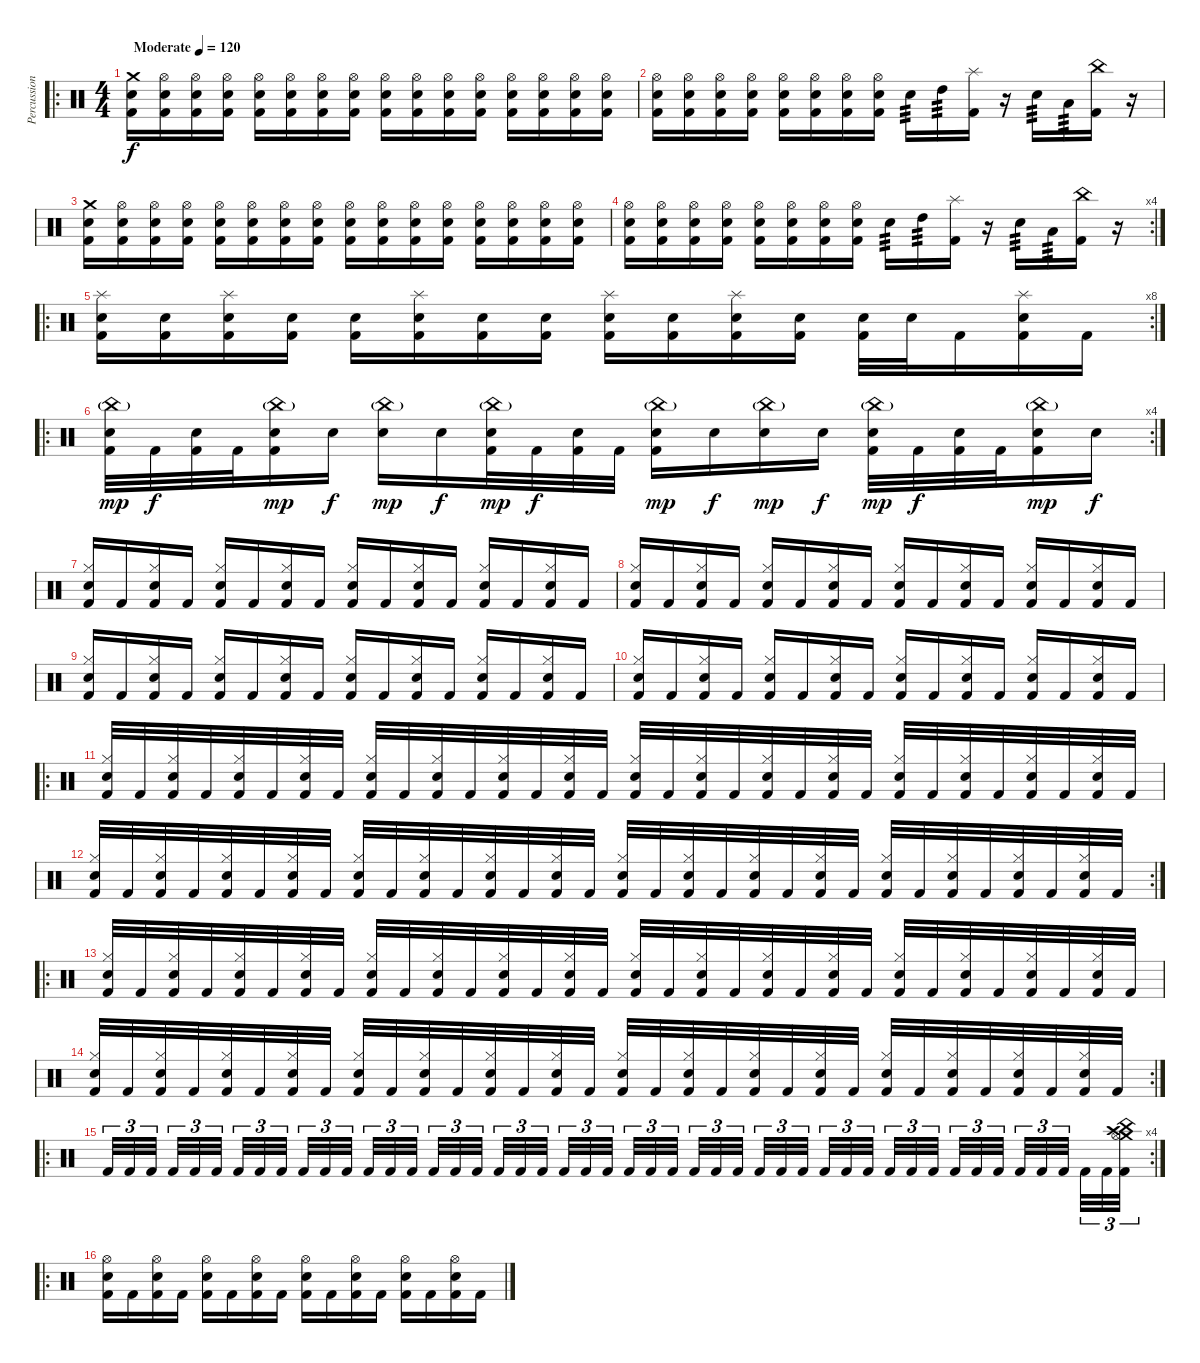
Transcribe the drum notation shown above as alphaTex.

\track ("Percussions" "Percussion") {instrument percussion}
\staff {score}
\articulation defaults
\ro
\ts (4 4)
\tempo (120 "Moderate")
\clef neutral
\ks c
("Crash medium (hit)" "Electric Snare (hit)" "Kick (hit) 2").16{dy f} ("Hi-Hat (open)" "Electric Snare (hit)" "Kick (hit) 2").16 ("Hi-Hat (open)" "Electric Snare (hit)" "Kick (hit) 2").16 ("Hi-Hat (open)" "Electric Snare (hit)" "Kick (hit) 2").16 ("Hi-Hat (open)" "Electric Snare (hit)" "Kick (hit) 2").16 ("Hi-Hat (open)" "Electric Snare (hit)" "Kick (hit) 2").16 ("Hi-Hat (open)" "Electric Snare (hit)" "Kick (hit) 2").16 ("Hi-Hat (open)" "Electric Snare (hit)" "Kick (hit) 2").16 ("Hi-Hat (open)" "Electric Snare (hit)" "Kick (hit) 2").16 ("Hi-Hat (open)" "Electric Snare (hit)" "Kick (hit) 2").16 ("Hi-Hat (open)" "Electric Snare (hit)" "Kick (hit) 2").16 ("Hi-Hat (open)" "Electric Snare (hit)" "Kick (hit) 2").16 ("Hi-Hat (open)" "Electric Snare (hit)" "Kick (hit) 2").16 ("Hi-Hat (open)" "Electric Snare (hit)" "Kick (hit) 2").16 ("Hi-Hat (open)" "Electric Snare (hit)" "Kick (hit) 2").16 ("Hi-Hat (open)" "Electric Snare (hit)" "Kick (hit) 2").16 |
("Hi-Hat (open)" "Electric Snare (hit)" "Kick (hit) 2").16 ("Hi-Hat (open)" "Electric Snare (hit)" "Kick (hit) 2").16 ("Hi-Hat (open)" "Electric Snare (hit)" "Kick (hit) 2").16 ("Hi-Hat (open)" "Electric Snare (hit)" "Kick (hit) 2").16 ("Hi-Hat (open)" "Electric Snare (hit)" "Kick (hit) 2").16 ("Hi-Hat (open)" "Electric Snare (hit)" "Kick (hit) 2").16 ("Hi-Hat (open)" "Electric Snare (hit)" "Kick (hit) 2").16 ("Hi-Hat (open)" "Electric Snare (hit)" "Kick (hit) 2").16 "Electric Snare (hit)".16{tp 3} "High Tom (hit)".16{tp 3} ("Splash (hit)" "Kick (hit) 2").16 r.16 "Electric Snare (hit)".16{tp 3} "Low Tom (hit)".16{tp 3} ("China (hit)" "Kick (hit) 2").16 r.16 |
("Crash medium (hit)" "Electric Snare (hit)" "Kick (hit) 2").16 ("Hi-Hat (open)" "Electric Snare (hit)" "Kick (hit) 2").16 ("Hi-Hat (open)" "Electric Snare (hit)" "Kick (hit) 2").16 ("Hi-Hat (open)" "Electric Snare (hit)" "Kick (hit) 2").16 ("Hi-Hat (open)" "Electric Snare (hit)" "Kick (hit) 2").16 ("Hi-Hat (open)" "Electric Snare (hit)" "Kick (hit) 2").16 ("Hi-Hat (open)" "Electric Snare (hit)" "Kick (hit) 2").16 ("Hi-Hat (open)" "Electric Snare (hit)" "Kick (hit) 2").16 ("Hi-Hat (open)" "Electric Snare (hit)" "Kick (hit) 2").16 ("Hi-Hat (open)" "Electric Snare (hit)" "Kick (hit) 2").16 ("Hi-Hat (open)" "Electric Snare (hit)" "Kick (hit) 2").16 ("Hi-Hat (open)" "Electric Snare (hit)" "Kick (hit) 2").16 ("Hi-Hat (open)" "Electric Snare (hit)" "Kick (hit) 2").16 ("Hi-Hat (open)" "Electric Snare (hit)" "Kick (hit) 2").16 ("Hi-Hat (open)" "Electric Snare (hit)" "Kick (hit) 2").16 ("Hi-Hat (open)" "Electric Snare (hit)" "Kick (hit) 2").16 |
\rc 4
("Hi-Hat (open)" "Electric Snare (hit)" "Kick (hit) 2").16 ("Hi-Hat (open)" "Electric Snare (hit)" "Kick (hit) 2").16 ("Hi-Hat (open)" "Electric Snare (hit)" "Kick (hit) 2").16 ("Hi-Hat (open)" "Electric Snare (hit)" "Kick (hit) 2").16 ("Hi-Hat (open)" "Electric Snare (hit)" "Kick (hit) 2").16 ("Hi-Hat (open)" "Electric Snare (hit)" "Kick (hit) 2").16 ("Hi-Hat (open)" "Electric Snare (hit)" "Kick (hit) 2").16 ("Hi-Hat (open)" "Electric Snare (hit)" "Kick (hit) 2").16 "Electric Snare (hit)".16{tp 3} "High Tom (hit)".16{tp 3} ("Splash (hit)" "Kick (hit) 2").16 r.16 "Electric Snare (hit)".16{tp 3} "Low Tom (hit)".16{tp 3} ("China (hit)" "Kick (hit) 2").16 r.16 |
\ro
\rc 8
("Splash (hit)" "Electric Snare (hit)" "Kick (hit) 2").16 ("Electric Snare (hit)" "Kick (hit) 2").16 ("Splash (hit)" "Electric Snare (hit)" "Kick (hit) 2").16 ("Electric Snare (hit)" "Kick (hit) 2").16 ("Electric Snare (hit)" "Kick (hit) 2").16 ("Splash (hit)" "Electric Snare (hit)" "Kick (hit) 2").16 ("Electric Snare (hit)" "Kick (hit) 2").16 ("Electric Snare (hit)" "Kick (hit) 2").16 ("Splash (hit)" "Electric Snare (hit)" "Kick (hit) 2").16 ("Electric Snare (hit)" "Kick (hit) 2").16 ("Splash (hit)" "Electric Snare (hit)" "Kick (hit) 2").16 ("Electric Snare (hit)" "Kick (hit) 2").16 ("Electric Snare (hit)" "Kick (hit) 2").32 "Electric Snare (hit)".32 "Kick (hit) 2".16 ("Splash (hit)" "Electric Snare (hit)" "Kick (hit) 2").16 "Kick (hit) 2".16 |
\ro
\rc 4
("China (hit)"{g} "Electric Snare (hit)" "Kick (hit) 2").32{dy mp} "Kick (hit) 2".32{dy f} ("Electric Snare (hit)" "Kick (hit) 2").32 "Kick (hit) 2".32 ("China (hit)"{g} "Electric Snare (hit)" "Kick (hit) 2").16{dy mp} "Electric Snare (hit)".16{dy f} ("China (hit)"{g} "Electric Snare (hit)").16{dy mp} "Electric Snare (hit)".16{dy f} ("China (hit)"{g} "Electric Snare (hit)" "Kick (hit) 2").32{dy mp} "Kick (hit) 2".32{dy f} ("Electric Snare (hit)" "Kick (hit) 2").32 "Kick (hit) 2".32 ("China (hit)"{g} "Electric Snare (hit)" "Kick (hit) 2").16{dy mp} "Electric Snare (hit)".16{dy f} ("China (hit)"{g} "Electric Snare (hit)").16{dy mp} "Electric Snare (hit)".16{dy f} ("China (hit)"{g} "Electric Snare (hit)" "Kick (hit) 2").32{dy mp} "Kick (hit) 2".32{dy f} ("Electric Snare (hit)" "Kick (hit) 2").32 "Kick (hit) 2".32 ("China (hit)"{g} "Electric Snare (hit)" "Kick (hit) 2").16{dy mp} "Electric Snare (hit)".16{dy f} |
("Hi-Hat (closed)" "Snare (hit) 2" "Kick (hit) 2").16 "Kick (hit) 2".16 ("Hi-Hat (closed)" "Snare (hit) 2" "Kick (hit) 2").16 "Kick (hit) 2".16 ("Hi-Hat (closed)" "Snare (hit) 2" "Kick (hit) 2").16 "Kick (hit) 2".16 ("Hi-Hat (closed)" "Snare (hit) 2" "Kick (hit) 2").16 "Kick (hit) 2".16 ("Hi-Hat (closed)" "Snare (hit) 2" "Kick (hit) 2").16 "Kick (hit) 2".16 ("Hi-Hat (closed)" "Snare (hit) 2" "Kick (hit) 2").16 "Kick (hit) 2".16 ("Hi-Hat (closed)" "Snare (hit) 2" "Kick (hit) 2").16 "Kick (hit) 2".16 ("Hi-Hat (closed)" "Snare (hit) 2" "Kick (hit) 2").16 "Kick (hit) 2".16 |
("Hi-Hat (closed)" "Snare (hit) 2" "Kick (hit) 2").16 "Kick (hit) 2".16 ("Hi-Hat (closed)" "Snare (hit) 2" "Kick (hit) 2").16 "Kick (hit) 2".16 ("Hi-Hat (closed)" "Snare (hit) 2" "Kick (hit) 2").16 "Kick (hit) 2".16 ("Hi-Hat (closed)" "Snare (hit) 2" "Kick (hit) 2").16 "Kick (hit) 2".16 ("Hi-Hat (closed)" "Snare (hit) 2" "Kick (hit) 2").16 "Kick (hit) 2".16 ("Hi-Hat (closed)" "Snare (hit) 2" "Kick (hit) 2").16 "Kick (hit) 2".16 ("Hi-Hat (closed)" "Snare (hit) 2" "Kick (hit) 2").16 "Kick (hit) 2".16 ("Hi-Hat (closed)" "Snare (hit) 2" "Kick (hit) 2").16 "Kick (hit) 2".16 |
("Hi-Hat (closed)" "Snare (hit) 2" "Kick (hit) 2").16 "Kick (hit) 2".16 ("Hi-Hat (closed)" "Snare (hit) 2" "Kick (hit) 2").16 "Kick (hit) 2".16 ("Hi-Hat (closed)" "Snare (hit) 2" "Kick (hit) 2").16 "Kick (hit) 2".16 ("Hi-Hat (closed)" "Snare (hit) 2" "Kick (hit) 2").16 "Kick (hit) 2".16 ("Hi-Hat (closed)" "Snare (hit) 2" "Kick (hit) 2").16 "Kick (hit) 2".16 ("Hi-Hat (closed)" "Snare (hit) 2" "Kick (hit) 2").16 "Kick (hit) 2".16 ("Hi-Hat (closed)" "Snare (hit) 2" "Kick (hit) 2").16 "Kick (hit) 2".16 ("Hi-Hat (closed)" "Snare (hit) 2" "Kick (hit) 2").16 "Kick (hit) 2".16 |
("Hi-Hat (closed)" "Snare (hit) 2" "Kick (hit) 2").16 "Kick (hit) 2".16 ("Hi-Hat (closed)" "Snare (hit) 2" "Kick (hit) 2").16 "Kick (hit) 2".16 ("Hi-Hat (closed)" "Snare (hit) 2" "Kick (hit) 2").16 "Kick (hit) 2".16 ("Hi-Hat (closed)" "Snare (hit) 2" "Kick (hit) 2").16 "Kick (hit) 2".16 ("Hi-Hat (closed)" "Snare (hit) 2" "Kick (hit) 2").16 "Kick (hit) 2".16 ("Hi-Hat (closed)" "Snare (hit) 2" "Kick (hit) 2").16 "Kick (hit) 2".16 ("Hi-Hat (closed)" "Snare (hit) 2" "Kick (hit) 2").16 "Kick (hit) 2".16 ("Hi-Hat (closed)" "Snare (hit) 2" "Kick (hit) 2").16 "Kick (hit) 2".16 |
\ro
("Hi-Hat (closed)" "Snare (hit) 2" "Kick (hit) 2").32 "Kick (hit) 2".32 ("Hi-Hat (closed)" "Snare (hit) 2" "Kick (hit) 2").32 "Kick (hit) 2".32 ("Hi-Hat (closed)" "Snare (hit) 2" "Kick (hit) 2").32 "Kick (hit) 2".32 ("Hi-Hat (closed)" "Snare (hit) 2" "Kick (hit) 2").32 "Kick (hit) 2".32 ("Hi-Hat (closed)" "Snare (hit) 2" "Kick (hit) 2").32 "Kick (hit) 2".32 ("Hi-Hat (closed)" "Snare (hit) 2" "Kick (hit) 2").32 "Kick (hit) 2".32 ("Hi-Hat (closed)" "Snare (hit) 2" "Kick (hit) 2").32 "Kick (hit) 2".32 ("Hi-Hat (closed)" "Snare (hit) 2" "Kick (hit) 2").32 "Kick (hit) 2".32 ("Hi-Hat (closed)" "Snare (hit) 2" "Kick (hit) 2").32 "Kick (hit) 2".32 ("Hi-Hat (closed)" "Snare (hit) 2" "Kick (hit) 2").32 "Kick (hit) 2".32 ("Hi-Hat (closed)" "Snare (hit) 2" "Kick (hit) 2").32 "Kick (hit) 2".32 ("Hi-Hat (closed)" "Snare (hit) 2" "Kick (hit) 2").32 "Kick (hit) 2".32 ("Hi-Hat (closed)" "Snare (hit) 2" "Kick (hit) 2").32 "Kick (hit) 2".32 ("Hi-Hat (closed)" "Snare (hit) 2" "Kick (hit) 2").32 "Kick (hit) 2".32 ("Hi-Hat (closed)" "Snare (hit) 2" "Kick (hit) 2").32 "Kick (hit) 2".32 ("Hi-Hat (closed)" "Snare (hit) 2" "Kick (hit) 2").32 "Kick (hit) 2".32 |
\rc 2
("Hi-Hat (closed)" "Snare (hit) 2" "Kick (hit) 2").32 "Kick (hit) 2".32 ("Hi-Hat (closed)" "Snare (hit) 2" "Kick (hit) 2").32 "Kick (hit) 2".32 ("Hi-Hat (closed)" "Snare (hit) 2" "Kick (hit) 2").32 "Kick (hit) 2".32 ("Hi-Hat (closed)" "Snare (hit) 2" "Kick (hit) 2").32 "Kick (hit) 2".32 ("Hi-Hat (closed)" "Snare (hit) 2" "Kick (hit) 2").32 "Kick (hit) 2".32 ("Hi-Hat (closed)" "Snare (hit) 2" "Kick (hit) 2").32 "Kick (hit) 2".32 ("Hi-Hat (closed)" "Snare (hit) 2" "Kick (hit) 2").32 "Kick (hit) 2".32 ("Hi-Hat (closed)" "Snare (hit) 2" "Kick (hit) 2").32 "Kick (hit) 2".32 ("Hi-Hat (closed)" "Snare (hit) 2" "Kick (hit) 2").32 "Kick (hit) 2".32 ("Hi-Hat (closed)" "Snare (hit) 2" "Kick (hit) 2").32 "Kick (hit) 2".32 ("Hi-Hat (closed)" "Snare (hit) 2" "Kick (hit) 2").32 "Kick (hit) 2".32 ("Hi-Hat (closed)" "Snare (hit) 2" "Kick (hit) 2").32 "Kick (hit) 2".32 ("Hi-Hat (closed)" "Snare (hit) 2" "Kick (hit) 2").32 "Kick (hit) 2".32 ("Hi-Hat (closed)" "Snare (hit) 2" "Kick (hit) 2").32 "Kick (hit) 2".32 ("Hi-Hat (closed)" "Snare (hit) 2" "Kick (hit) 2").32 "Kick (hit) 2".32 ("Hi-Hat (closed)" "Snare (hit) 2" "Kick (hit) 2").32 "Kick (hit) 2".32 |
\ro
("Hi-Hat (closed)" "Snare (hit) 2" "Kick (hit) 2").32 "Kick (hit) 2".32 ("Hi-Hat (closed)" "Snare (hit) 2" "Kick (hit) 2").32 "Kick (hit) 2".32 ("Hi-Hat (closed)" "Snare (hit) 2" "Kick (hit) 2").32 "Kick (hit) 2".32 ("Hi-Hat (closed)" "Snare (hit) 2" "Kick (hit) 2").32 "Kick (hit) 2".32 ("Hi-Hat (closed)" "Snare (hit) 2" "Kick (hit) 2").32 "Kick (hit) 2".32 ("Hi-Hat (closed)" "Snare (hit) 2" "Kick (hit) 2").32 "Kick (hit) 2".32 ("Hi-Hat (closed)" "Snare (hit) 2" "Kick (hit) 2").32 "Kick (hit) 2".32 ("Hi-Hat (closed)" "Snare (hit) 2" "Kick (hit) 2").32 "Kick (hit) 2".32 ("Hi-Hat (closed)" "Snare (hit) 2" "Kick (hit) 2").32 "Kick (hit) 2".32 ("Hi-Hat (closed)" "Snare (hit) 2" "Kick (hit) 2").32 "Kick (hit) 2".32 ("Hi-Hat (closed)" "Snare (hit) 2" "Kick (hit) 2").32 "Kick (hit) 2".32 ("Hi-Hat (closed)" "Snare (hit) 2" "Kick (hit) 2").32 "Kick (hit) 2".32 ("Hi-Hat (closed)" "Snare (hit) 2" "Kick (hit) 2").32 "Kick (hit) 2".32 ("Hi-Hat (closed)" "Snare (hit) 2" "Kick (hit) 2").32 "Kick (hit) 2".32 ("Hi-Hat (closed)" "Snare (hit) 2" "Kick (hit) 2").32 "Kick (hit) 2".32 ("Hi-Hat (closed)" "Snare (hit) 2" "Kick (hit) 2").32 "Kick (hit) 2".32 |
\rc 2
("Hi-Hat (closed)" "Snare (hit) 2" "Kick (hit) 2").32 "Kick (hit) 2".32 ("Hi-Hat (closed)" "Snare (hit) 2" "Kick (hit) 2").32 "Kick (hit) 2".32 ("Hi-Hat (closed)" "Snare (hit) 2" "Kick (hit) 2").32 "Kick (hit) 2".32 ("Hi-Hat (closed)" "Snare (hit) 2" "Kick (hit) 2").32 "Kick (hit) 2".32 ("Hi-Hat (closed)" "Snare (hit) 2" "Kick (hit) 2").32 "Kick (hit) 2".32 ("Hi-Hat (closed)" "Snare (hit) 2" "Kick (hit) 2").32 "Kick (hit) 2".32 ("Hi-Hat (closed)" "Snare (hit) 2" "Kick (hit) 2").32 "Kick (hit) 2".32 ("Hi-Hat (closed)" "Snare (hit) 2" "Kick (hit) 2").32 "Kick (hit) 2".32 ("Hi-Hat (closed)" "Snare (hit) 2" "Kick (hit) 2").32 "Kick (hit) 2".32 ("Hi-Hat (closed)" "Snare (hit) 2" "Kick (hit) 2").32 "Kick (hit) 2".32 ("Hi-Hat (closed)" "Snare (hit) 2" "Kick (hit) 2").32 "Kick (hit) 2".32 ("Hi-Hat (closed)" "Snare (hit) 2" "Kick (hit) 2").32 "Kick (hit) 2".32 ("Hi-Hat (closed)" "Snare (hit) 2" "Kick (hit) 2").32 "Kick (hit) 2".32 ("Hi-Hat (closed)" "Snare (hit) 2" "Kick (hit) 2").32 "Kick (hit) 2".32 ("Hi-Hat (closed)" "Snare (hit) 2" "Kick (hit) 2").32 "Kick (hit) 2".32 ("Hi-Hat (closed)" "Snare (hit) 2" "Kick (hit) 2").32 "Kick (hit) 2".32 |
\ro
\rc 4 "Kick (hit) 2".32{tu (3 2)} "Kick (hit) 2".32{tu (3 2)} "Kick (hit) 2".32{tu (3 2) beam splitsecondary} "Kick (hit) 2".32{tu (3 2)} "Kick (hit) 2".32{tu (3 2)} "Kick (hit) 2".32{tu (3 2) beam splitsecondary} "Kick (hit) 2".32{tu (3 2)} "Kick (hit) 2".32{tu (3 2)} "Kick (hit) 2".32{tu (3 2) beam splitsecondary} "Kick (hit) 2".32{tu (3 2)} "Kick (hit) 2".32{tu (3 2)} "Kick (hit) 2".32{tu (3 2)} "Kick (hit) 2".32{tu (3 2)} "Kick (hit) 2".32{tu (3 2)} "Kick (hit) 2".32{tu (3 2) beam splitsecondary} "Kick (hit) 2".32{tu (3 2)} "Kick (hit) 2".32{tu (3 2)} "Kick (hit) 2".32{tu (3 2) beam splitsecondary} "Kick (hit) 2".32{tu (3 2)} "Kick (hit) 2".32{tu (3 2)} "Kick (hit) 2".32{tu (3 2) beam splitsecondary} "Kick (hit) 2".32{tu (3 2)} "Kick (hit) 2".32{tu (3 2)} "Kick (hit) 2".32{tu (3 2)} "Kick (hit) 2".32{tu (3 2)} "Kick (hit) 2".32{tu (3 2)} "Kick (hit) 2".32{tu (3 2) beam splitsecondary} "Kick (hit) 2".32{tu (3 2)} "Kick (hit) 2".32{tu (3 2)} "Kick (hit) 2".32{tu (3 2) beam splitsecondary} "Kick (hit) 2".32{tu (3 2)} "Kick (hit) 2".32{tu (3 2)} "Kick (hit) 2".32{tu (3 2) beam splitsecondary} "Kick (hit) 2".32{tu (3 2)} "Kick (hit) 2".32{tu (3 2)} "Kick (hit) 2".32{tu (3 2)} "Kick (hit) 2".32{tu (3 2)} "Kick (hit) 2".32{tu (3 2)} "Kick (hit) 2".32{tu (3 2) beam splitsecondary} "Kick (hit) 2".32{tu (3 2)} "Kick (hit) 2".32{tu (3 2)} "Kick (hit) 2".32{tu (3 2) beam splitsecondary} "Kick (hit) 2".32{tu (3 2)} "Kick (hit) 2".32{tu (3 2)} "Kick (hit) 2".32{tu (3 2) beam splitsecondary} "Kick (hit) 2".32{tu (3 2)} "Kick (hit) 2".32{tu (3 2)}
("Kick (hit) 2" "Crash medium (hit)" "Crash high (hit)" "China (hit)" "Hi-Hat (open)").32{tu (3 2)} |
\ro
("Hi-Hat (open)" "Electric Snare (hit)" "Kick (hit) 2").16 "Kick (hit) 2".16 ("Hi-Hat (open)" "Electric Snare (hit)" "Kick (hit) 2").16 "Kick (hit) 2".16 ("Hi-Hat (open)" "Electric Snare (hit)" "Kick (hit) 2").16 "Kick (hit) 2".16 ("Hi-Hat (open)" "Electric Snare (hit)" "Kick (hit) 2").16 "Kick (hit) 2".16 ("Hi-Hat (open)" "Electric Snare (hit)" "Kick (hit) 2").16 "Kick (hit) 2".16 ("Hi-Hat (open)" "Electric Snare (hit)" "Kick (hit) 2").16 "Kick (hit) 2".16 ("Hi-Hat (open)" "Electric Snare (hit)" "Kick (hit) 2").16 "Kick (hit) 2".16 ("Hi-Hat (open)" "Electric Snare (hit)" "Kick (hit) 2").16 "Kick (hit) 2".16
